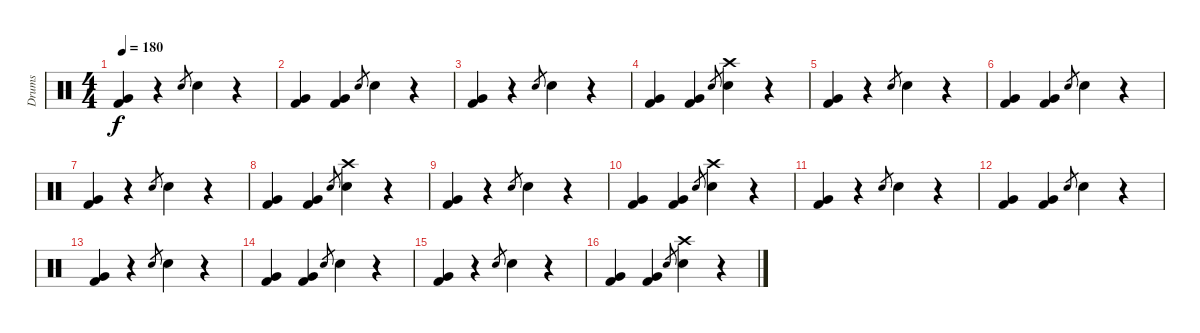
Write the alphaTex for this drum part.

\track ("Drums" "Drums") {instrument percussion}
\staff {score}
\articulation defaults
\ts (4 4)
\tempo 180
\clef neutral
\ks c
("Very Low Tom (hit)" "Kick (hit) 2").4{dy f} r.4 "Electric Snare (hit)".8{gr} "Electric Snare (hit)".4 r.4 |
("Very Low Tom (hit)" "Kick (hit) 2").4 ("Very Low Tom (hit)" "Kick (hit) 2").4 "Electric Snare (hit)".8{gr} "Electric Snare (hit)".4 r.4 |
("Very Low Tom (hit)" "Kick (hit) 2").4 r.4 "Electric Snare (hit)".8{gr} "Electric Snare (hit)".4 r.4 |
("Very Low Tom (hit)" "Kick (hit) 2").4 ("Very Low Tom (hit)" "Kick (hit) 2").4 "Electric Snare (hit)".8{gr} ("Crash high (hit)" "Electric Snare (hit)").4 r.4 |
("Very Low Tom (hit)" "Kick (hit) 2").4 r.4 "Electric Snare (hit)".8{gr} "Electric Snare (hit)".4 r.4 |
("Very Low Tom (hit)" "Kick (hit) 2").4 ("Very Low Tom (hit)" "Kick (hit) 2").4 "Electric Snare (hit)".8{gr} "Electric Snare (hit)".4 r.4 |
("Very Low Tom (hit)" "Kick (hit) 2").4 r.4 "Electric Snare (hit)".8{gr} "Electric Snare (hit)".4 r.4 |
("Very Low Tom (hit)" "Kick (hit) 2").4 ("Very Low Tom (hit)" "Kick (hit) 2").4 "Electric Snare (hit)".8{gr} ("Crash high (hit)" "Electric Snare (hit)").4 r.4 |
("Very Low Tom (hit)" "Kick (hit) 2").4 r.4 "Electric Snare (hit)".8{gr} "Electric Snare (hit)".4 r.4 |
("Very Low Tom (hit)" "Kick (hit) 2").4 ("Very Low Tom (hit)" "Kick (hit) 2").4 "Electric Snare (hit)".8{gr} ("Crash high (hit)" "Electric Snare (hit)").4 r.4 |
("Very Low Tom (hit)" "Kick (hit) 2").4 r.4 "Electric Snare (hit)".8{gr} "Electric Snare (hit)".4 r.4 |
("Very Low Tom (hit)" "Kick (hit) 2").4 ("Very Low Tom (hit)" "Kick (hit) 2").4 "Electric Snare (hit)".8{gr} "Electric Snare (hit)".4 r.4 |
("Very Low Tom (hit)" "Kick (hit) 2").4 r.4 "Electric Snare (hit)".8{gr} "Electric Snare (hit)".4 r.4 |
("Very Low Tom (hit)" "Kick (hit) 2").4 ("Very Low Tom (hit)" "Kick (hit) 2").4 "Electric Snare (hit)".8{gr} "Electric Snare (hit)".4 r.4 |
("Very Low Tom (hit)" "Kick (hit) 2").4 r.4 "Electric Snare (hit)".8{gr} "Electric Snare (hit)".4 r.4 |
("Very Low Tom (hit)" "Kick (hit) 2").4 ("Very Low Tom (hit)" "Kick (hit) 2").4 "Electric Snare (hit)".8{gr} ("Crash high (hit)" "Electric Snare (hit)").4 r.4
